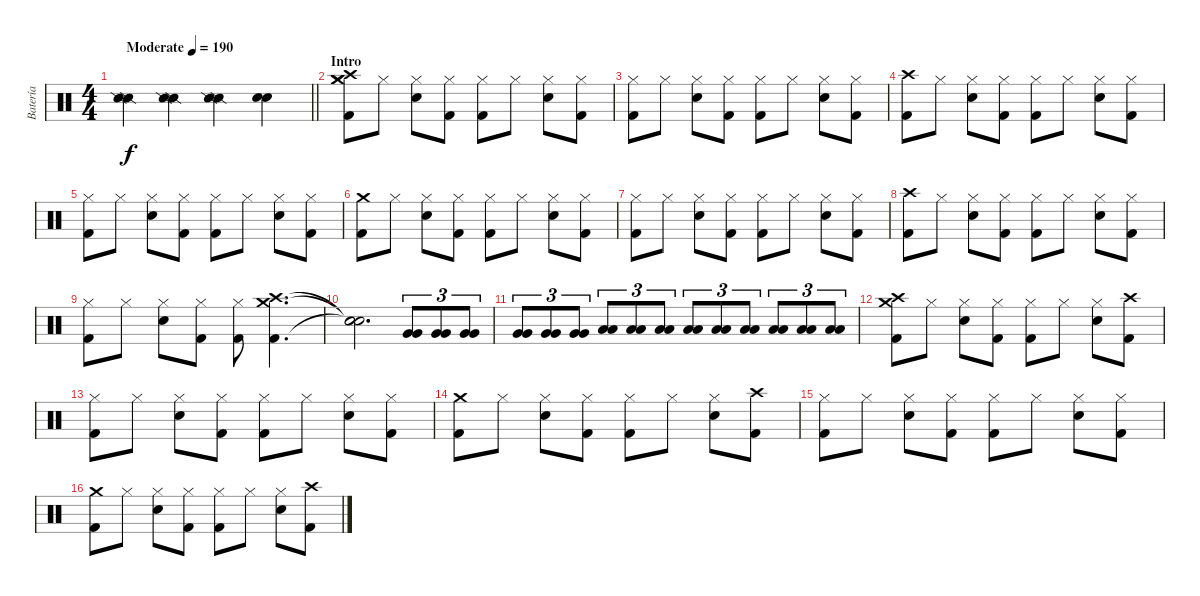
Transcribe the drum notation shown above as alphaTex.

\track ("Batería" "Batería") {instrument percussion}
\staff {score}
\articulation defaults
\ts (4 4)
\tempo (190 "Moderate")
\clef neutral
\barLineRight lightlight
\ks c
("Snare (side stick) 2" "Snare (side stick) 2").4{dy f} ("Snare (side stick) 2" "Snare (side stick) 2").4 ("Snare (side stick) 2" "Snare (side stick) 2").4 ("Snare (hit) 2" "Snare (hit) 2").4 |
\section ("" "Intro")
("Crash medium (hit)" "Crash high (hit)" "Crash medium (hit)" "Kick (hit) 2").8 "Hi-Hat (closed)".8 ("Hi-Hat (closed)" "Snare (hit) 2").8 ("Hi-Hat (closed)" "Kick (hit) 2").8 ("Hi-Hat (closed)" "Kick (hit) 2").8 "Hi-Hat (closed)".8 ("Hi-Hat (closed)" "Snare (hit) 2").8 ("Hi-Hat (closed)" "Kick (hit) 2").8 |
("Hi-Hat (closed)" "Kick (hit) 2").8 "Hi-Hat (closed)".8 ("Hi-Hat (closed)" "Snare (hit) 2").8 ("Hi-Hat (closed)" "Kick (hit) 2").8 ("Hi-Hat (closed)" "Kick (hit) 2").8 "Hi-Hat (closed)".8 ("Hi-Hat (closed)" "Snare (hit) 2").8 ("Hi-Hat (closed)" "Kick (hit) 2").8 |
("Crash high (hit)" "Kick (hit) 2").8 "Hi-Hat (closed)".8 ("Hi-Hat (closed)" "Snare (hit) 2").8 ("Hi-Hat (closed)" "Kick (hit) 2").8 ("Hi-Hat (closed)" "Kick (hit) 2").8 "Hi-Hat (closed)".8 ("Hi-Hat (closed)" "Snare (hit) 2").8 ("Hi-Hat (closed)" "Kick (hit) 2").8 |
("Hi-Hat (closed)" "Kick (hit) 2").8 "Hi-Hat (closed)".8 ("Hi-Hat (closed)" "Snare (hit) 2").8 ("Hi-Hat (closed)" "Kick (hit) 2").8 ("Hi-Hat (closed)" "Kick (hit) 2").8 "Hi-Hat (closed)".8 ("Hi-Hat (closed)" "Snare (hit) 2").8 ("Hi-Hat (closed)" "Kick (hit) 2").8 |
("Crash medium (hit)" "Kick (hit) 2").8 "Hi-Hat (closed)".8 ("Hi-Hat (closed)" "Snare (hit) 2").8 ("Hi-Hat (closed)" "Kick (hit) 2").8 ("Hi-Hat (closed)" "Kick (hit) 2").8 "Hi-Hat (closed)".8 ("Hi-Hat (closed)" "Snare (hit) 2").8 ("Hi-Hat (closed)" "Kick (hit) 2").8 |
("Hi-Hat (closed)" "Kick (hit) 2").8 "Hi-Hat (closed)".8 ("Hi-Hat (closed)" "Snare (hit) 2").8 ("Hi-Hat (closed)" "Kick (hit) 2").8 ("Hi-Hat (closed)" "Kick (hit) 2").8 "Hi-Hat (closed)".8 ("Hi-Hat (closed)" "Snare (hit) 2").8 ("Hi-Hat (closed)" "Kick (hit) 2").8 |
("Crash high (hit)" "Kick (hit) 2").8 "Hi-Hat (closed)".8 ("Hi-Hat (closed)" "Snare (hit) 2").8 ("Hi-Hat (closed)" "Kick (hit) 2").8 ("Hi-Hat (closed)" "Kick (hit) 2").8 "Hi-Hat (closed)".8 ("Hi-Hat (closed)" "Snare (hit) 2").8 ("Hi-Hat (closed)" "Kick (hit) 2").8 |
("Hi-Hat (closed)" "Kick (hit) 2").8 "Hi-Hat (closed)".8 ("Hi-Hat (closed)" "Snare (hit) 2").8 ("Hi-Hat (closed)" "Kick (hit) 2").8 ("Hi-Hat (closed)" "Kick (hit) 2").8 ("Crash high (hit)" "Crash medium (hit)" "Kick (hit) 2").4{d} |
("Snare (hit)"{t} "Snare (hit)"{t} "Snare (hit)"{t}).2{d} ("Very Low Tom (hit)" "Very Low Tom (hit)").8{tu (3 2)} ("Very Low Tom (hit)" "Very Low Tom (hit)").8{tu (3 2)} ("Very Low Tom (hit)" "Very Low Tom (hit)").8{tu (3 2)} |
("Very Low Tom (hit)" "Very Low Tom (hit)").8{tu (3 2)} ("Very Low Tom (hit)" "Very Low Tom (hit)").8{tu (3 2)} ("Very Low Tom (hit)" "Very Low Tom (hit)").8{tu (3 2)} ("Low Floor Tom (hit)" "Low Floor Tom (hit)").8{tu (3 2)} ("Low Floor Tom (hit)" "Low Floor Tom (hit)").8{tu (3 2)} ("Low Floor Tom (hit)" "Low Floor Tom (hit)").8{tu (3 2)} ("Low Floor Tom (hit)" "Low Floor Tom (hit)").8{tu (3 2)} ("Low Floor Tom (hit)" "Low Floor Tom (hit)").8{tu (3 2)} ("Low Floor Tom (hit)" "Low Floor Tom (hit)").8{tu (3 2)} ("Low Floor Tom (hit)" "Low Floor Tom (hit)").8{tu (3 2)} ("Low Floor Tom (hit)" "Low Floor Tom (hit)").8{tu (3 2)} ("Low Floor Tom (hit)" "Low Floor Tom (hit)").8{tu (3 2)} |
("Crash medium (hit)" "Crash high (hit)" "Kick (hit) 2").8 "Hi-Hat (closed)".8 ("Hi-Hat (closed)" "Snare (hit) 2").8 ("Hi-Hat (closed)" "Kick (hit) 2").8 ("Hi-Hat (closed)" "Kick (hit) 2").8 "Hi-Hat (closed)".8 ("Hi-Hat (closed)" "Snare (hit) 2").8 ("Crash high (hit)" "Kick (hit) 2").8 |
("Hi-Hat (closed)" "Kick (hit) 2").8 "Hi-Hat (closed)".8 ("Hi-Hat (closed)" "Snare (hit) 2").8 ("Hi-Hat (closed)" "Kick (hit) 2").8 ("Hi-Hat (closed)" "Kick (hit) 2").8 "Hi-Hat (closed)".8 ("Hi-Hat (closed)" "Snare (hit) 2").8 ("Hi-Hat (closed)" "Kick (hit) 2").8 |
("Crash medium (hit)" "Kick (hit) 2").8 "Hi-Hat (closed)".8 ("Hi-Hat (closed)" "Snare (hit) 2").8 ("Hi-Hat (closed)" "Kick (hit) 2").8 ("Hi-Hat (closed)" "Kick (hit) 2").8 "Hi-Hat (closed)".8 ("Hi-Hat (closed)" "Snare (hit) 2").8 ("Crash high (hit)" "Kick (hit) 2").8 |
("Hi-Hat (closed)" "Kick (hit) 2").8 "Hi-Hat (closed)".8 ("Hi-Hat (closed)" "Snare (hit) 2").8 ("Hi-Hat (closed)" "Kick (hit) 2").8 ("Hi-Hat (closed)" "Kick (hit) 2").8 "Hi-Hat (closed)".8 ("Hi-Hat (closed)" "Snare (hit) 2").8 ("Hi-Hat (closed)" "Kick (hit) 2").8 |
("Crash medium (hit)" "Kick (hit) 2").8 "Hi-Hat (closed)".8 ("Hi-Hat (closed)" "Snare (hit) 2").8 ("Hi-Hat (closed)" "Kick (hit) 2").8 ("Hi-Hat (closed)" "Kick (hit) 2").8 "Hi-Hat (closed)".8 ("Hi-Hat (closed)" "Snare (hit) 2").8 ("Crash high (hit)" "Kick (hit) 2").8
